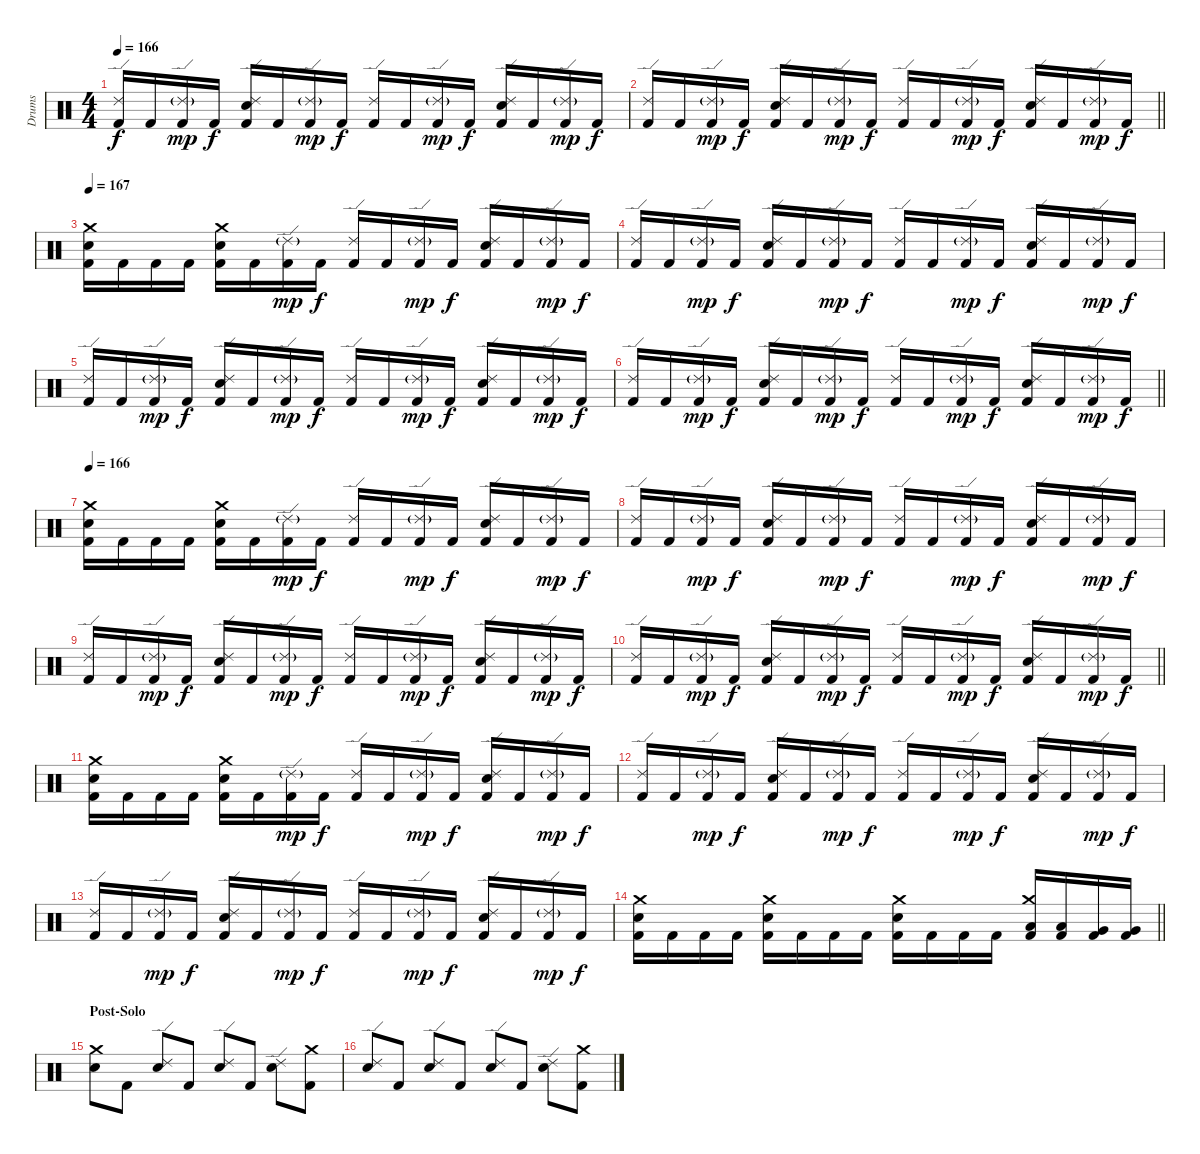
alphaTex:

\track ("Drums" "Drums") {instrument percussion}
\staff {score}
\articulation defaults
\ts (4 4)
\tempo 166
\clef neutral
\ks c
("Kick (hit) 2" "Ride (edge) 2").16{dy f} "Kick (hit) 2".16 ("Kick (hit) 2" "Ride (edge) 2"{g}).16{dy mp} "Kick (hit) 2".16{dy f} ("Kick (hit) 2" "Snare (hit) 2" "Ride (edge) 2").16 "Kick (hit) 2".16 ("Kick (hit) 2" "Ride (edge) 2"{g}).16{dy mp} "Kick (hit) 2".16{dy f} ("Kick (hit) 2" "Ride (edge) 2").16 "Kick (hit) 2".16 ("Kick (hit) 2" "Ride (edge) 2"{g}).16{dy mp} "Kick (hit) 2".16{dy f} ("Kick (hit) 2" "Snare (hit) 2" "Ride (edge) 2").16 "Kick (hit) 2".16 ("Kick (hit) 2" "Ride (edge) 2"{g}).16{dy mp} "Kick (hit) 2".16{dy f} |
\barLineRight lightlight
("Kick (hit) 2" "Ride (edge) 2").16 "Kick (hit) 2".16 ("Kick (hit) 2" "Ride (edge) 2"{g}).16{dy mp} "Kick (hit) 2".16{dy f} ("Kick (hit) 2" "Snare (hit) 2" "Ride (edge) 2").16 "Kick (hit) 2".16 ("Kick (hit) 2" "Ride (edge) 2"{g}).16{dy mp} "Kick (hit) 2".16{dy f} ("Kick (hit) 2" "Ride (edge) 2").16 "Kick (hit) 2".16 ("Kick (hit) 2" "Ride (edge) 2"{g}).16{dy mp} "Kick (hit) 2".16{dy f} ("Kick (hit) 2" "Snare (hit) 2" "Ride (edge) 2").16 "Kick (hit) 2".16 ("Kick (hit) 2" "Ride (edge) 2"{g}).16{dy mp} "Kick (hit) 2".16{dy f} |
\section ("" "")
\tempo 167
("Kick (hit) 2" "Snare (hit) 2" "Crash medium (hit)").16 "Kick (hit) 2".16 "Kick (hit) 2".16 "Kick (hit) 2".16 ("Kick (hit) 2" "Snare (hit) 2" "Crash medium (hit)").16 "Kick (hit) 2".16 ("Kick (hit) 2" "Ride (edge) 2"{g}).16{dy mp} "Kick (hit) 2".16{dy f} ("Kick (hit) 2" "Ride (edge) 2").16 "Kick (hit) 2".16 ("Kick (hit) 2" "Ride (edge) 2"{g}).16{dy mp} "Kick (hit) 2".16{dy f} ("Kick (hit) 2" "Snare (hit) 2" "Ride (edge) 2").16 "Kick (hit) 2".16 ("Kick (hit) 2" "Ride (edge) 2"{g}).16{dy mp} "Kick (hit) 2".16{dy f} |
("Kick (hit) 2" "Ride (edge) 2").16 "Kick (hit) 2".16 ("Kick (hit) 2" "Ride (edge) 2"{g}).16{dy mp} "Kick (hit) 2".16{dy f} ("Kick (hit) 2" "Snare (hit) 2" "Ride (edge) 2").16 "Kick (hit) 2".16 ("Kick (hit) 2" "Ride (edge) 2"{g}).16{dy mp} "Kick (hit) 2".16{dy f} ("Kick (hit) 2" "Ride (edge) 2").16 "Kick (hit) 2".16 ("Kick (hit) 2" "Ride (edge) 2"{g}).16{dy mp} "Kick (hit) 2".16{dy f} ("Kick (hit) 2" "Snare (hit) 2" "Ride (edge) 2").16 "Kick (hit) 2".16 ("Kick (hit) 2" "Ride (edge) 2"{g}).16{dy mp} "Kick (hit) 2".16{dy f} |
("Kick (hit) 2" "Ride (edge) 2").16 "Kick (hit) 2".16 ("Kick (hit) 2" "Ride (edge) 2"{g}).16{dy mp} "Kick (hit) 2".16{dy f} ("Kick (hit) 2" "Snare (hit) 2" "Ride (edge) 2").16 "Kick (hit) 2".16 ("Kick (hit) 2" "Ride (edge) 2"{g}).16{dy mp} "Kick (hit) 2".16{dy f} ("Kick (hit) 2" "Ride (edge) 2").16 "Kick (hit) 2".16 ("Kick (hit) 2" "Ride (edge) 2"{g}).16{dy mp} "Kick (hit) 2".16{dy f} ("Kick (hit) 2" "Snare (hit) 2" "Ride (edge) 2").16 "Kick (hit) 2".16 ("Kick (hit) 2" "Ride (edge) 2"{g}).16{dy mp} "Kick (hit) 2".16{dy f} |
\barLineRight lightlight
("Kick (hit) 2" "Ride (edge) 2").16 "Kick (hit) 2".16 ("Kick (hit) 2" "Ride (edge) 2"{g}).16{dy mp} "Kick (hit) 2".16{dy f} ("Kick (hit) 2" "Snare (hit) 2" "Ride (edge) 2").16 "Kick (hit) 2".16 ("Kick (hit) 2" "Ride (edge) 2"{g}).16{dy mp} "Kick (hit) 2".16{dy f} ("Kick (hit) 2" "Ride (edge) 2").16 "Kick (hit) 2".16 ("Kick (hit) 2" "Ride (edge) 2"{g}).16{dy mp} "Kick (hit) 2".16{dy f} ("Kick (hit) 2" "Snare (hit) 2" "Ride (edge) 2").16 "Kick (hit) 2".16 ("Kick (hit) 2" "Ride (edge) 2"{g}).16{dy mp} "Kick (hit) 2".16{dy f} |
\section ("" "")
\tempo 166
("Kick (hit) 2" "Snare (hit) 2" "Crash medium (hit)").16 "Kick (hit) 2".16 "Kick (hit) 2".16 "Kick (hit) 2".16 ("Kick (hit) 2" "Snare (hit) 2" "Crash medium (hit)").16 "Kick (hit) 2".16 ("Kick (hit) 2" "Ride (edge) 2"{g}).16{dy mp} "Kick (hit) 2".16{dy f} ("Kick (hit) 2" "Ride (edge) 2").16 "Kick (hit) 2".16 ("Kick (hit) 2" "Ride (edge) 2"{g}).16{dy mp} "Kick (hit) 2".16{dy f} ("Kick (hit) 2" "Snare (hit) 2" "Ride (edge) 2").16 "Kick (hit) 2".16 ("Kick (hit) 2" "Ride (edge) 2"{g}).16{dy mp} "Kick (hit) 2".16{dy f} |
("Kick (hit) 2" "Ride (edge) 2").16 "Kick (hit) 2".16 ("Kick (hit) 2" "Ride (edge) 2"{g}).16{dy mp} "Kick (hit) 2".16{dy f} ("Kick (hit) 2" "Snare (hit) 2" "Ride (edge) 2").16 "Kick (hit) 2".16 ("Kick (hit) 2" "Ride (edge) 2"{g}).16{dy mp} "Kick (hit) 2".16{dy f} ("Kick (hit) 2" "Ride (edge) 2").16 "Kick (hit) 2".16 ("Kick (hit) 2" "Ride (edge) 2"{g}).16{dy mp} "Kick (hit) 2".16{dy f} ("Kick (hit) 2" "Snare (hit) 2" "Ride (edge) 2").16 "Kick (hit) 2".16 ("Kick (hit) 2" "Ride (edge) 2"{g}).16{dy mp} "Kick (hit) 2".16{dy f} |
("Kick (hit) 2" "Ride (edge) 2").16 "Kick (hit) 2".16 ("Kick (hit) 2" "Ride (edge) 2"{g}).16{dy mp} "Kick (hit) 2".16{dy f} ("Kick (hit) 2" "Snare (hit) 2" "Ride (edge) 2").16 "Kick (hit) 2".16 ("Kick (hit) 2" "Ride (edge) 2"{g}).16{dy mp} "Kick (hit) 2".16{dy f} ("Kick (hit) 2" "Ride (edge) 2").16 "Kick (hit) 2".16 ("Kick (hit) 2" "Ride (edge) 2"{g}).16{dy mp} "Kick (hit) 2".16{dy f} ("Kick (hit) 2" "Snare (hit) 2" "Ride (edge) 2").16 "Kick (hit) 2".16 ("Kick (hit) 2" "Ride (edge) 2"{g}).16{dy mp} "Kick (hit) 2".16{dy f} |
\barLineRight lightlight
("Kick (hit) 2" "Ride (edge) 2").16 "Kick (hit) 2".16 ("Kick (hit) 2" "Ride (edge) 2"{g}).16{dy mp} "Kick (hit) 2".16{dy f} ("Kick (hit) 2" "Snare (hit) 2" "Ride (edge) 2").16 "Kick (hit) 2".16 ("Kick (hit) 2" "Ride (edge) 2"{g}).16{dy mp} "Kick (hit) 2".16{dy f} ("Kick (hit) 2" "Ride (edge) 2").16 "Kick (hit) 2".16 ("Kick (hit) 2" "Ride (edge) 2"{g}).16{dy mp} "Kick (hit) 2".16{dy f} ("Kick (hit) 2" "Snare (hit) 2" "Ride (edge) 2").16 "Kick (hit) 2".16 ("Kick (hit) 2" "Ride (edge) 2"{g}).16{dy mp} "Kick (hit) 2".16{dy f} |
\section ("" "")
("Kick (hit) 2" "Snare (hit) 2" "Crash medium (hit)").16 "Kick (hit) 2".16 "Kick (hit) 2".16 "Kick (hit) 2".16 ("Kick (hit) 2" "Snare (hit) 2" "Crash medium (hit)").16 "Kick (hit) 2".16 ("Kick (hit) 2" "Ride (edge) 2"{g}).16{dy mp} "Kick (hit) 2".16{dy f} ("Kick (hit) 2" "Ride (edge) 2").16 "Kick (hit) 2".16 ("Kick (hit) 2" "Ride (edge) 2"{g}).16{dy mp} "Kick (hit) 2".16{dy f} ("Kick (hit) 2" "Snare (hit) 2" "Ride (edge) 2").16 "Kick (hit) 2".16 ("Kick (hit) 2" "Ride (edge) 2"{g}).16{dy mp} "Kick (hit) 2".16{dy f} |
("Kick (hit) 2" "Ride (edge) 2").16 "Kick (hit) 2".16 ("Kick (hit) 2" "Ride (edge) 2"{g}).16{dy mp} "Kick (hit) 2".16{dy f} ("Kick (hit) 2" "Snare (hit) 2" "Ride (edge) 2").16 "Kick (hit) 2".16 ("Kick (hit) 2" "Ride (edge) 2"{g}).16{dy mp} "Kick (hit) 2".16{dy f} ("Kick (hit) 2" "Ride (edge) 2").16 "Kick (hit) 2".16 ("Kick (hit) 2" "Ride (edge) 2"{g}).16{dy mp} "Kick (hit) 2".16{dy f} ("Kick (hit) 2" "Snare (hit) 2" "Ride (edge) 2").16 "Kick (hit) 2".16 ("Kick (hit) 2" "Ride (edge) 2"{g}).16{dy mp} "Kick (hit) 2".16{dy f} |
("Kick (hit) 2" "Ride (edge) 2").16 "Kick (hit) 2".16 ("Kick (hit) 2" "Ride (edge) 2"{g}).16{dy mp} "Kick (hit) 2".16{dy f} ("Kick (hit) 2" "Snare (hit) 2" "Ride (edge) 2").16 "Kick (hit) 2".16 ("Kick (hit) 2" "Ride (edge) 2"{g}).16{dy mp} "Kick (hit) 2".16{dy f} ("Kick (hit) 2" "Ride (edge) 2").16 "Kick (hit) 2".16 ("Kick (hit) 2" "Ride (edge) 2"{g}).16{dy mp} "Kick (hit) 2".16{dy f} ("Kick (hit) 2" "Snare (hit) 2" "Ride (edge) 2").16 "Kick (hit) 2".16 ("Kick (hit) 2" "Ride (edge) 2"{g}).16{dy mp} "Kick (hit) 2".16{dy f} |
\barLineRight lightlight
("Kick (hit) 2" "Snare (hit) 2" "Crash medium (hit)").16 "Kick (hit) 2".16 "Kick (hit) 2".16 "Kick (hit) 2".16 ("Kick (hit) 2" "Snare (hit) 2" "Crash medium (hit)").16 "Kick (hit) 2".16 "Kick (hit) 2".16 "Kick (hit) 2".16 ("Kick (hit) 2" "Snare (hit) 2" "Crash medium (hit)").16 "Kick (hit) 2".16 "Kick (hit) 2".16 "Kick (hit) 2".16 ("Kick (hit) 2" "Low Tom (hit)" "Crash medium (hit)").16 ("Kick (hit) 2" "Low Tom (hit)").16 ("Kick (hit) 2" "Very Low Tom (hit)").16 ("Kick (hit) 2" "Very Low Tom (hit)").16 |
\section ("" "Post-Solo")
("Snare (hit) 2" "Crash medium (hit)").8 "Kick (hit) 2".8 ("Snare (hit) 2" "Ride (edge) 2").8 "Kick (hit) 2".8 ("Snare (hit) 2" "Ride (edge) 2").8 "Kick (hit) 2".8 ("Snare (hit) 2" "Ride (edge) 2").8 ("Kick (hit) 2" "Crash medium (hit)").8 |
("Snare (hit) 2" "Ride (edge) 2").8 "Kick (hit) 2".8 ("Snare (hit) 2" "Ride (edge) 2").8 "Kick (hit) 2".8 ("Snare (hit) 2" "Ride (edge) 2").8 "Kick (hit) 2".8 ("Snare (hit) 2" "Ride (edge) 2").8 ("Kick (hit) 2" "Crash medium (hit)").8
